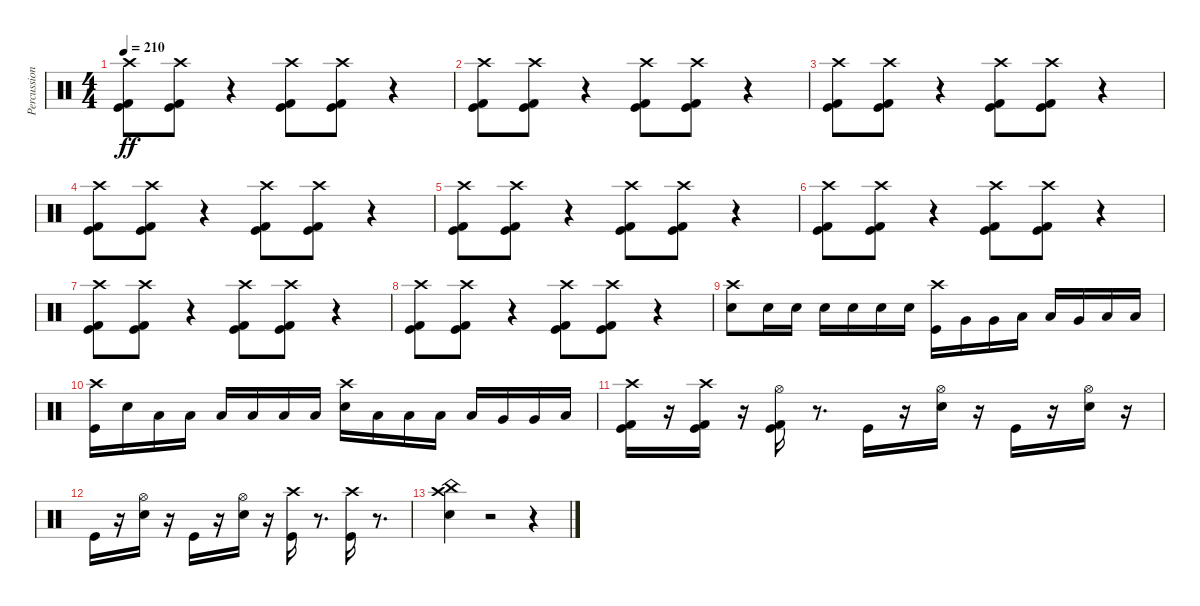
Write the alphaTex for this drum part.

\track ("Percussion" "Percussion") {instrument percussion}
\staff {score}
\articulation defaults
\ts (4 4)
\tempo 210
\clef neutral
\ks c
("Crash high (hit)" "Kick (hit) 2" "Kick (hit)").8{dy ff} ("Crash high (hit)" "Kick (hit)" "Kick (hit) 2").8 r.4 ("Kick (hit) 2" "Kick (hit)" "Crash high (hit)").8 ("Kick (hit) 2" "Kick (hit)" "Crash high (hit)").8 r.4 |
("Crash high (hit)" "Kick (hit) 2" "Kick (hit)").8 ("Crash high (hit)" "Kick (hit)" "Kick (hit) 2").8 r.4 ("Kick (hit) 2" "Kick (hit)" "Crash high (hit)").8 ("Kick (hit) 2" "Kick (hit)" "Crash high (hit)").8 r.4 |
("Crash high (hit)" "Kick (hit) 2" "Kick (hit)").8 ("Crash high (hit)" "Kick (hit)" "Kick (hit) 2").8 r.4 ("Kick (hit) 2" "Kick (hit)" "Crash high (hit)").8 ("Kick (hit) 2" "Kick (hit)" "Crash high (hit)").8 r.4 |
("Crash high (hit)" "Kick (hit) 2" "Kick (hit)").8 ("Crash high (hit)" "Kick (hit)" "Kick (hit) 2").8 r.4 ("Kick (hit) 2" "Kick (hit)" "Crash high (hit)").8 ("Kick (hit) 2" "Kick (hit)" "Crash high (hit)").8 r.4 |
("Crash high (hit)" "Kick (hit) 2" "Kick (hit)").8 ("Crash high (hit)" "Kick (hit)" "Kick (hit) 2").8 r.4 ("Kick (hit) 2" "Kick (hit)" "Crash high (hit)").8 ("Kick (hit) 2" "Kick (hit)" "Crash high (hit)").8 r.4 |
("Crash high (hit)" "Kick (hit) 2" "Kick (hit)").8 ("Crash high (hit)" "Kick (hit)" "Kick (hit) 2").8 r.4 ("Kick (hit) 2" "Kick (hit)" "Crash high (hit)").8 ("Kick (hit) 2" "Kick (hit)" "Crash high (hit)").8 r.4 |
("Crash high (hit)" "Kick (hit) 2" "Kick (hit)").8 ("Crash high (hit)" "Kick (hit)" "Kick (hit) 2").8 r.4 ("Kick (hit) 2" "Kick (hit)" "Crash high (hit)").8 ("Kick (hit) 2" "Kick (hit)" "Crash high (hit)").8 r.4 |
("Crash high (hit)" "Kick (hit) 2" "Kick (hit)").8 ("Crash high (hit)" "Kick (hit)" "Kick (hit) 2").8 r.4 ("Kick (hit) 2" "Kick (hit)" "Crash high (hit)").8 ("Kick (hit) 2" "Kick (hit)" "Crash high (hit)").8 r.4 |
("Crash high (hit)" "Snare (hit) 2").8 "Snare (hit) 2".16 "Snare (hit) 2".16 "Snare (hit) 2".16 "Snare (hit) 2".16 "Snare (hit) 2".16 "Snare (hit) 2".16 ("Crash high (hit)" "Kick (hit)").16 "Very Low Tom (hit)".16 "Very Low Tom (hit)".16 "Low Floor Tom (hit)".16 "Low Floor Tom (hit)".16 "Very Low Tom (hit)".16 "Low Floor Tom (hit)".16 "Low Floor Tom (hit)".16 |
("Crash high (hit)" "Kick (hit)").16 "Snare (hit) 2".16 "Low Floor Tom (hit)".16 "Low Floor Tom (hit)".16 "Low Floor Tom (hit)".16 "Low Floor Tom (hit)".16 "Low Floor Tom (hit)".16 "Low Floor Tom (hit)".16 ("Snare (hit) 2" "Crash high (hit)").16 "Low Floor Tom (hit)".16 "Low Floor Tom (hit)".16 "Low Floor Tom (hit)".16 "Low Floor Tom (hit)".16 "Very Low Tom (hit)".16 "Very Low Tom (hit)".16 "Low Floor Tom (hit)".16 |
("Crash high (hit)" "Kick (hit) 2" "Kick (hit)").16 r.16 ("Crash high (hit)" "Kick (hit) 2" "Kick (hit)").16 r.16 ("Kick (hit) 2" "Hi-Hat (open)" "Kick (hit)").16 r.8{d} "Kick (hit)".16 r.16 ("Hi-Hat (open)" "Snare (hit) 2").16 r.16 "Kick (hit)".16 r.16 ("Hi-Hat (open)" "Snare (hit) 2").16 r.16 |
"Kick (hit)".16 r.16 ("Hi-Hat (open)" "Snare (hit) 2").16 r.16 "Kick (hit)".16 r.16 ("Hi-Hat (open)" "Snare (hit) 2").16 r.16 ("Crash high (hit)" "Kick (hit)").16 r.8{d} ("Crash high (hit)" "Kick (hit)").16 r.8{d} |
("China (hit)" "Crash high (hit)" "Snare (hit) 2").4 r.2 r.4
